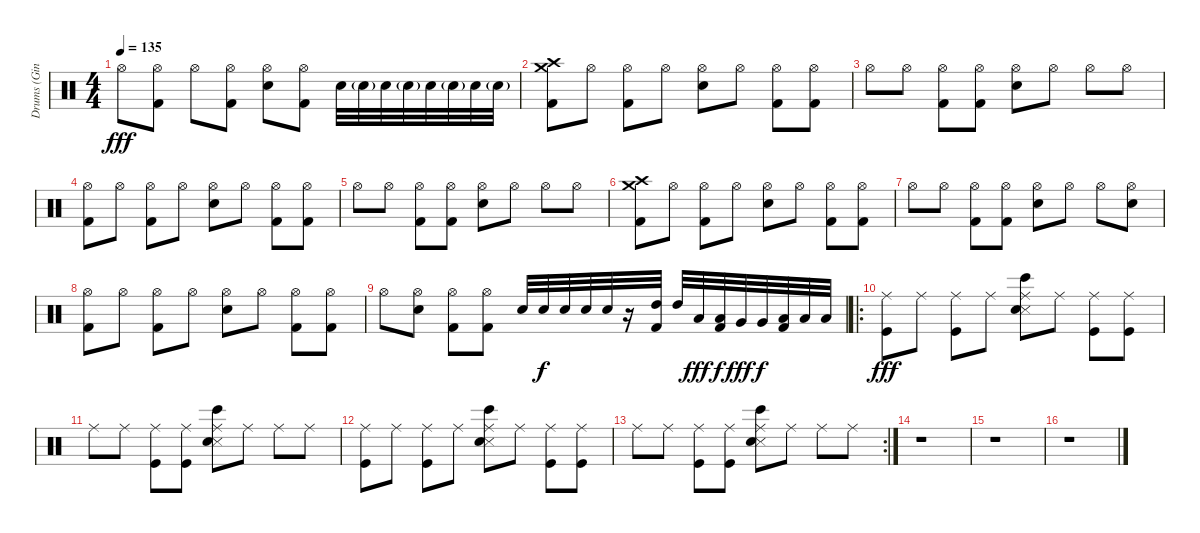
\track ("Drums (Ginger Fish)" "Drums (Gin") {instrument percussion}
\staff {score}
\articulation defaults
\ts (4 4)
\tempo 135
\clef neutral
\ks c "Hi-Hat (open)".8{dy fff}
("Hi-Hat (open)" "Kick (hit) 2").8 "Hi-Hat (open)".8 ("Hi-Hat (open)" "Kick (hit) 2").8 ("Hi-Hat (open)" "Electric Snare (hit)").8 ("Hi-Hat (open)" "Kick (hit) 2").8 "Electric Snare (hit)".32 "Electric Snare (hit)"{g}.32 "Electric Snare (hit)".32 "Electric Snare (hit)"{g}.32 "Electric Snare (hit)".32 "Electric Snare (hit)"{g}.32 "Electric Snare (hit)".32 "Electric Snare (hit)"{g}.32 |
("Crash high (hit)" "Crash medium (hit)" "Kick (hit) 2").8 "Hi-Hat (open)".8 ("Hi-Hat (open)" "Kick (hit) 2").8 "Hi-Hat (open)".8 ("Hi-Hat (open)" "Electric Snare (hit)").8 "Hi-Hat (open)".8 ("Hi-Hat (open)" "Kick (hit) 2").8 ("Hi-Hat (open)" "Kick (hit) 2").8 |
"Hi-Hat (open)".8 "Hi-Hat (open)".8 ("Hi-Hat (open)" "Kick (hit) 2").8 ("Hi-Hat (open)" "Kick (hit) 2").8 ("Hi-Hat (open)" "Electric Snare (hit)").8 "Hi-Hat (open)".8 "Hi-Hat (open)".8 "Hi-Hat (open)".8 |
("Hi-Hat (open)" "Kick (hit) 2").8 "Hi-Hat (open)".8 ("Hi-Hat (open)" "Kick (hit) 2").8 "Hi-Hat (open)".8 ("Hi-Hat (open)" "Electric Snare (hit)").8 "Hi-Hat (open)".8 ("Hi-Hat (open)" "Kick (hit) 2").8 ("Hi-Hat (open)" "Kick (hit) 2").8 |
"Hi-Hat (open)".8 "Hi-Hat (open)".8 ("Hi-Hat (open)" "Kick (hit) 2").8 ("Hi-Hat (open)" "Kick (hit) 2").8 ("Hi-Hat (open)" "Electric Snare (hit)").8 "Hi-Hat (open)".8 "Hi-Hat (open)".8 "Hi-Hat (open)".8 |
("Crash high (hit)" "Crash medium (hit)" "Kick (hit) 2").8 "Hi-Hat (open)".8 ("Hi-Hat (open)" "Kick (hit) 2").8 "Hi-Hat (open)".8 ("Hi-Hat (open)" "Electric Snare (hit)").8 "Hi-Hat (open)".8 ("Hi-Hat (open)" "Kick (hit) 2").8 ("Hi-Hat (open)" "Kick (hit) 2").8 |
"Hi-Hat (open)".8 "Hi-Hat (open)".8 ("Hi-Hat (open)" "Kick (hit) 2").8 ("Hi-Hat (open)" "Kick (hit) 2").8 ("Hi-Hat (open)" "Electric Snare (hit)").8 "Hi-Hat (open)".8 "Hi-Hat (open)".8 ("Hi-Hat (open)" "Electric Snare (hit)").8 |
("Hi-Hat (open)" "Kick (hit) 2").8 "Hi-Hat (open)".8 ("Hi-Hat (open)" "Kick (hit) 2").8 "Hi-Hat (open)".8 ("Hi-Hat (open)" "Electric Snare (hit)").8 "Hi-Hat (open)".8 ("Hi-Hat (open)" "Kick (hit) 2").8 ("Hi-Hat (open)" "Kick (hit) 2").8 |
"Hi-Hat (open)".8 ("Hi-Hat (open)" "Electric Snare (hit)").8 ("Hi-Hat (open)" "Kick (hit) 2").8 ("Hi-Hat (open)" "Kick (hit) 2").8 "Electric Snare (hit)".32 "Electric Snare (hit)".32{dy f} "Electric Snare (hit)".32 "Electric Snare (hit)".32 "Electric Snare (hit)".32 r.16 ("High Tom (hit)" "Kick (hit) 2").32 "High Tom (hit)".32 "Low Tom (hit)".32{dy fff} ("Low Tom (hit)" "Kick (hit) 2").32{dy f} "Very Low Tom (hit)".32{dy fff} "Very Low Tom (hit)".32{dy f} ("Low Floor Tom (hit)" "Kick (hit) 2").32 "Low Floor Tom (hit)".32 "Low Floor Tom (hit)".32 |
\ro
("Ride (middle)" "Kick (hit)").8{dy fff} "Ride (middle)".8 ("Ride (middle)" "Kick (hit)").8 "Ride (middle)".8 ("Ride (middle)" "Snare (side stick) 3" "Snare (hit) 2" "Bongo High (hit)").8 "Ride (middle)".8 ("Ride (middle)" "Kick (hit)").8 ("Ride (middle)" "Kick (hit)").8 |
"Ride (middle)".8 "Ride (middle)".8 ("Ride (middle)" "Kick (hit)").8 ("Ride (middle)" "Kick (hit)").8 ("Ride (middle)" "Snare (side stick) 3" "Snare (hit) 2" "Bongo High (hit)").8 "Ride (middle)".8 "Ride (middle)".8 "Ride (middle)".8 |
("Ride (middle)" "Kick (hit)").8 "Ride (middle)".8 ("Ride (middle)" "Kick (hit)").8 "Ride (middle)".8 ("Ride (middle)" "Snare (side stick) 3" "Snare (hit) 2" "Bongo High (hit)").8 "Ride (middle)".8 ("Ride (middle)" "Kick (hit)").8 ("Ride (middle)" "Kick (hit)").8 |
\rc 2 "Ride (middle)".8 "Ride (middle)".8
("Ride (middle)" "Kick (hit)").8 ("Ride (middle)" "Kick (hit)").8 ("Ride (middle)" "Snare (side stick) 3" "Snare (hit) 2" "Bongo High (hit)").8 "Ride (middle)".8 "Ride (middle)".8 "Ride (middle)".8 |
r.1 |
r.1 |
r.1
